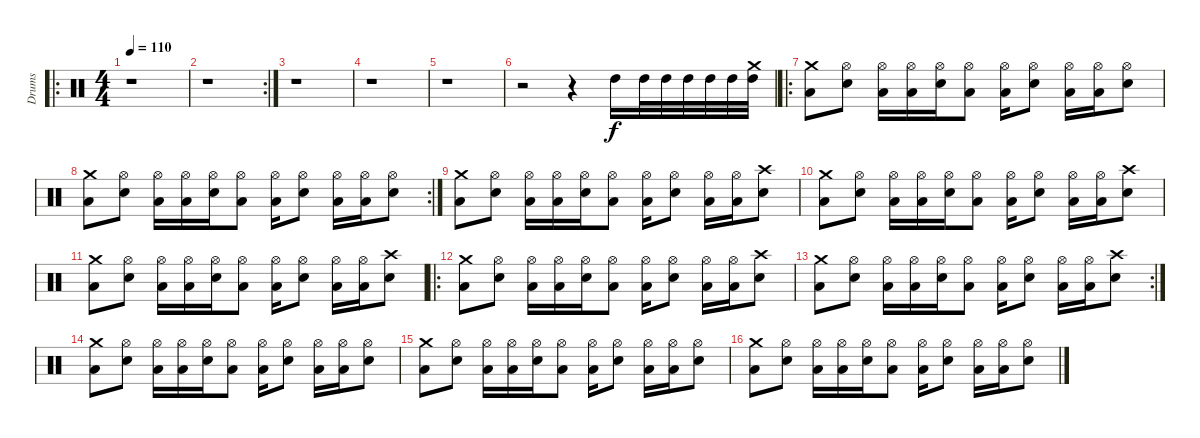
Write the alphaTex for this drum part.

\track ("Drums" "Drums") {instrument percussion}
\staff {score}
\articulation defaults
\ro
\ts (4 4)
\tempo 110
\clef neutral
\ks c
r.1{dy f} |
\rc 2
r.1 |
r.1 |
r.1 |
r.1 |
r.2 r.4 "High Tom (hit)".16 "High Tom (hit)".32 "High Tom (hit)".32 "High Tom (hit)".32 "High Tom (hit)".32 "High Tom (hit)".32 ("High Tom (hit)" "Crash medium (hit)").32 |
\ro
("Low Tom (hit)" "Crash medium (hit)").8 ("Snare (hit) 2" "Hi-Hat (open)").8 ("Low Tom (hit)" "Hi-Hat (open)").16 ("Low Tom (hit)" "Hi-Hat (open)").16 ("Snare (hit) 2" "Hi-Hat (open)").16 ("Low Tom (hit)" "Hi-Hat (open)").8 ("Low Tom (hit)" "Hi-Hat (open)").16 ("Snare (hit) 2" "Hi-Hat (open)").8 ("Low Tom (hit)" "Hi-Hat (open)").16 ("Low Tom (hit)" "Hi-Hat (open)").16 ("Snare (hit) 2" "Hi-Hat (open)").8 |
\rc 2
("Low Tom (hit)" "Crash medium (hit)").8 ("Snare (hit) 2" "Hi-Hat (open)").8 ("Low Tom (hit)" "Hi-Hat (open)").16 ("Low Tom (hit)" "Hi-Hat (open)").16 ("Snare (hit) 2" "Hi-Hat (open)").16 ("Low Tom (hit)" "Hi-Hat (open)").8 ("Low Tom (hit)" "Hi-Hat (open)").16 ("Snare (hit) 2" "Hi-Hat (open)").8 ("Low Tom (hit)" "Hi-Hat (open)").16 ("Low Tom (hit)" "Hi-Hat (open)").16 ("Snare (hit) 2" "Hi-Hat (open)").8 |
("Low Tom (hit)" "Crash medium (hit)").8 ("Snare (hit) 2" "Hi-Hat (open)").8 ("Low Tom (hit)" "Hi-Hat (open)").16 ("Low Tom (hit)" "Hi-Hat (open)").16 ("Snare (hit) 2" "Hi-Hat (open)").16 ("Low Tom (hit)" "Hi-Hat (open)").8 ("Low Tom (hit)" "Hi-Hat (open)").16 ("Snare (hit) 2" "Hi-Hat (open)").8 ("Low Tom (hit)" "Hi-Hat (open)").16 ("Low Tom (hit)" "Hi-Hat (open)").16 ("Snare (hit) 2" "Crash high (hit)").8 |
("Low Tom (hit)" "Crash medium (hit)").8 ("Snare (hit) 2" "Hi-Hat (open)").8 ("Low Tom (hit)" "Hi-Hat (open)").16 ("Low Tom (hit)" "Hi-Hat (open)").16 ("Snare (hit) 2" "Hi-Hat (open)").16 ("Low Tom (hit)" "Hi-Hat (open)").8 ("Low Tom (hit)" "Hi-Hat (open)").16 ("Snare (hit) 2" "Hi-Hat (open)").8 ("Low Tom (hit)" "Hi-Hat (open)").16 ("Low Tom (hit)" "Hi-Hat (open)").16 ("Snare (hit) 2" "Crash high (hit)").8 |
("Low Tom (hit)" "Crash medium (hit)").8 ("Snare (hit) 2" "Hi-Hat (open)").8 ("Low Tom (hit)" "Hi-Hat (open)").16 ("Low Tom (hit)" "Hi-Hat (open)").16 ("Snare (hit) 2" "Hi-Hat (open)").16 ("Low Tom (hit)" "Hi-Hat (open)").8 ("Low Tom (hit)" "Hi-Hat (open)").16 ("Snare (hit) 2" "Hi-Hat (open)").8 ("Low Tom (hit)" "Hi-Hat (open)").16 ("Low Tom (hit)" "Hi-Hat (open)").16 ("Snare (hit) 2" "Crash high (hit)").8 |
\ro
("Low Tom (hit)" "Crash medium (hit)").8 ("Snare (hit) 2" "Hi-Hat (open)").8 ("Low Tom (hit)" "Hi-Hat (open)").16 ("Low Tom (hit)" "Hi-Hat (open)").16 ("Snare (hit) 2" "Hi-Hat (open)").16 ("Low Tom (hit)" "Hi-Hat (open)").8 ("Low Tom (hit)" "Hi-Hat (open)").16 ("Snare (hit) 2" "Hi-Hat (open)").8 ("Low Tom (hit)" "Hi-Hat (open)").16 ("Low Tom (hit)" "Hi-Hat (open)").16 ("Snare (hit) 2" "Crash high (hit)").8 |
\rc 2
("Low Tom (hit)" "Crash medium (hit)").8 ("Snare (hit) 2" "Hi-Hat (open)").8 ("Low Tom (hit)" "Hi-Hat (open)").16 ("Low Tom (hit)" "Hi-Hat (open)").16 ("Snare (hit) 2" "Hi-Hat (open)").16 ("Low Tom (hit)" "Hi-Hat (open)").8 ("Low Tom (hit)" "Hi-Hat (open)").16 ("Snare (hit) 2" "Hi-Hat (open)").8 ("Low Tom (hit)" "Hi-Hat (open)").16 ("Low Tom (hit)" "Hi-Hat (open)").16 ("Snare (hit) 2" "Crash high (hit)").8 |
("Low Tom (hit)" "Crash medium (hit)").8 ("Snare (hit) 2" "Hi-Hat (open)").8 ("Low Tom (hit)" "Hi-Hat (open)").16 ("Low Tom (hit)" "Hi-Hat (open)").16 ("Snare (hit) 2" "Hi-Hat (open)").16 ("Low Tom (hit)" "Hi-Hat (open)").8 ("Low Tom (hit)" "Hi-Hat (open)").16 ("Snare (hit) 2" "Hi-Hat (open)").8 ("Low Tom (hit)" "Hi-Hat (open)").16 ("Low Tom (hit)" "Hi-Hat (open)").16 ("Snare (hit) 2" "Hi-Hat (open)").8 |
("Low Tom (hit)" "Crash medium (hit)").8 ("Snare (hit) 2" "Hi-Hat (open)").8 ("Low Tom (hit)" "Hi-Hat (open)").16 ("Low Tom (hit)" "Hi-Hat (open)").16 ("Snare (hit) 2" "Hi-Hat (open)").16 ("Low Tom (hit)" "Hi-Hat (open)").8 ("Low Tom (hit)" "Hi-Hat (open)").16 ("Snare (hit) 2" "Hi-Hat (open)").8 ("Low Tom (hit)" "Hi-Hat (open)").16 ("Low Tom (hit)" "Hi-Hat (open)").16 ("Snare (hit) 2" "Hi-Hat (open)").8 |
("Low Tom (hit)" "Crash medium (hit)").8 ("Snare (hit) 2" "Hi-Hat (open)").8 ("Low Tom (hit)" "Hi-Hat (open)").16 ("Low Tom (hit)" "Hi-Hat (open)").16 ("Snare (hit) 2" "Hi-Hat (open)").16 ("Low Tom (hit)" "Hi-Hat (open)").8 ("Low Tom (hit)" "Hi-Hat (open)").16 ("Snare (hit) 2" "Hi-Hat (open)").8 ("Low Tom (hit)" "Hi-Hat (open)").16 ("Low Tom (hit)" "Hi-Hat (open)").16 ("Snare (hit) 2" "Hi-Hat (open)").8
